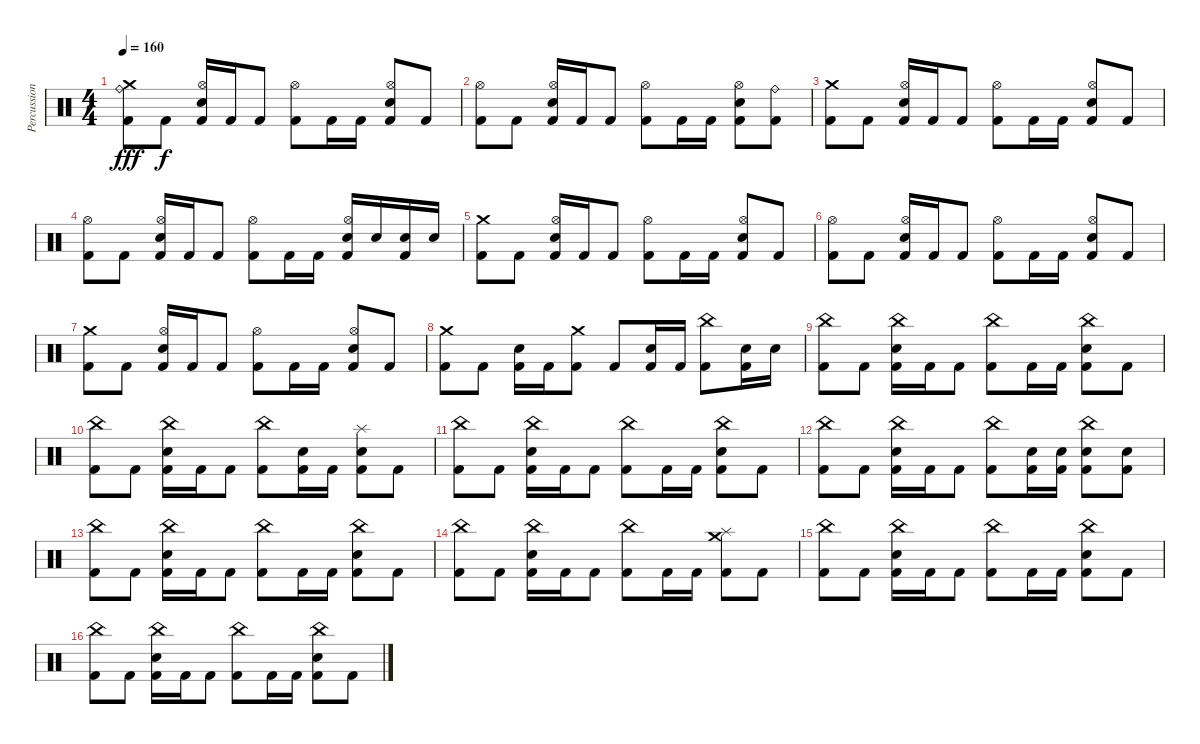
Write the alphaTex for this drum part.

\track ("Percussion" "Percussion") {instrument percussion}
\staff {score}
\articulation defaults
\ts (4 4)
\tempo 160
\clef neutral
\ks c
("Crash medium (hit)" "Ride (bell)" "Kick (hit) 2").8{dy fff} "Kick (hit) 2".8{dy f} ("Hi-Hat (open)" "Electric Snare (hit)" "Kick (hit) 2").16 "Kick (hit) 2".16 "Kick (hit) 2".8 ("Hi-Hat (open)" "Kick (hit) 2").8 "Kick (hit) 2".16 "Kick (hit) 2".16 ("Hi-Hat (open)" "Electric Snare (hit)" "Kick (hit) 2").8 "Kick (hit) 2".8 |
("Hi-Hat (open)" "Kick (hit) 2").8 "Kick (hit) 2".8 ("Hi-Hat (open)" "Electric Snare (hit)" "Kick (hit) 2").16 "Kick (hit) 2".16 "Kick (hit) 2".8 ("Hi-Hat (open)" "Kick (hit) 2").8 "Kick (hit) 2".16 "Kick (hit) 2".16 ("Hi-Hat (open)" "Electric Snare (hit)" "Kick (hit) 2").8 ("Ride (bell)" "Kick (hit) 2").8 |
("Crash medium (hit)" "Kick (hit) 2").8 "Kick (hit) 2".8 ("Hi-Hat (open)" "Electric Snare (hit)" "Kick (hit) 2").16 "Kick (hit) 2".16 "Kick (hit) 2".8 ("Hi-Hat (open)" "Kick (hit) 2").8 "Kick (hit) 2".16 "Kick (hit) 2".16 ("Hi-Hat (open)" "Electric Snare (hit)" "Kick (hit) 2").8 "Kick (hit) 2".8 |
("Hi-Hat (open)" "Kick (hit) 2").8 "Kick (hit) 2".8 ("Hi-Hat (open)" "Electric Snare (hit)" "Kick (hit) 2").16 "Kick (hit) 2".16 "Kick (hit) 2".8 ("Hi-Hat (open)" "Kick (hit) 2").8 "Kick (hit) 2".16 "Kick (hit) 2".16 ("Hi-Hat (open)" "Electric Snare (hit)" "Kick (hit) 2").16 "Electric Snare (hit)".16 ("Electric Snare (hit)" "Kick (hit) 2").16 "Electric Snare (hit)".16 |
("Crash medium (hit)" "Kick (hit) 2").8 "Kick (hit) 2".8 ("Hi-Hat (open)" "Electric Snare (hit)" "Kick (hit) 2").16 "Kick (hit) 2".16 "Kick (hit) 2".8 ("Hi-Hat (open)" "Kick (hit) 2").8 "Kick (hit) 2".16 "Kick (hit) 2".16 ("Hi-Hat (open)" "Electric Snare (hit)" "Kick (hit) 2").8 "Kick (hit) 2".8 |
("Hi-Hat (open)" "Kick (hit) 2").8 "Kick (hit) 2".8 ("Hi-Hat (open)" "Electric Snare (hit)" "Kick (hit) 2").16 "Kick (hit) 2".16 "Kick (hit) 2".8 ("Hi-Hat (open)" "Kick (hit) 2").8 "Kick (hit) 2".16 "Kick (hit) 2".16 ("Hi-Hat (open)" "Electric Snare (hit)" "Kick (hit) 2").8 "Kick (hit) 2".8 |
("Crash medium (hit)" "Kick (hit) 2").8 "Kick (hit) 2".8 ("Hi-Hat (open)" "Electric Snare (hit)" "Kick (hit) 2").16 "Kick (hit) 2".16 "Kick (hit) 2".8 ("Hi-Hat (open)" "Kick (hit) 2").8 "Kick (hit) 2".16 "Kick (hit) 2".16 ("Hi-Hat (open)" "Electric Snare (hit)" "Kick (hit) 2").8 "Kick (hit) 2".8 |
("Crash medium (hit)" "Kick (hit) 2").8 "Kick (hit) 2".8 ("Electric Snare (hit)" "Kick (hit) 2").16 "Kick (hit) 2".16 ("Crash medium (hit)" "Kick (hit) 2").8 "Kick (hit) 2".8 ("Electric Snare (hit)" "Kick (hit) 2").16 "Kick (hit) 2".16 ("China (hit)" "Kick (hit) 2").8 ("Electric Snare (hit)" "Kick (hit) 2").16 "Electric Snare (hit)".16 |
("China (hit)" "Kick (hit) 2").8 "Kick (hit) 2".8 ("China (hit)" "Electric Snare (hit)" "Kick (hit) 2").16 "Kick (hit) 2".16 "Kick (hit) 2".8 ("China (hit)" "Kick (hit) 2").8 "Kick (hit) 2".16 "Kick (hit) 2".16 ("China (hit)" "Electric Snare (hit)" "Kick (hit) 2").8 "Kick (hit) 2".8 |
("China (hit)" "Kick (hit) 2").8 "Kick (hit) 2".8 ("China (hit)" "Electric Snare (hit)" "Kick (hit) 2").16 "Kick (hit) 2".16 "Kick (hit) 2".8 ("China (hit)" "Kick (hit) 2").8 ("Electric Snare (hit)" "Kick (hit) 2").16 "Kick (hit) 2".16 ("Splash (hit)" "Electric Snare (hit)" "Kick (hit) 2").8 "Kick (hit) 2".8 |
("China (hit)" "Kick (hit) 2").8 "Kick (hit) 2".8 ("China (hit)" "Electric Snare (hit)" "Kick (hit) 2").16 "Kick (hit) 2".16 "Kick (hit) 2".8 ("China (hit)" "Kick (hit) 2").8 "Kick (hit) 2".16 "Kick (hit) 2".16 ("China (hit)" "Electric Snare (hit)" "Kick (hit) 2").8 "Kick (hit) 2".8 |
("China (hit)" "Kick (hit) 2").8 "Kick (hit) 2".8 ("China (hit)" "Electric Snare (hit)" "Kick (hit) 2").16 "Kick (hit) 2".16 "Kick (hit) 2".8 ("China (hit)" "Kick (hit) 2").8 ("Electric Snare (hit)" "Kick (hit) 2").16 ("Electric Snare (hit)" "Kick (hit) 2").16 ("China (hit)" "Electric Snare (hit)" "Kick (hit) 2").8 ("Electric Snare (hit)" "Kick (hit) 2").8 |
("China (hit)" "Kick (hit) 2").8 "Kick (hit) 2".8 ("China (hit)" "Electric Snare (hit)" "Kick (hit) 2").16 "Kick (hit) 2".16 "Kick (hit) 2".8 ("China (hit)" "Kick (hit) 2").8 "Kick (hit) 2".16 "Kick (hit) 2".16 ("China (hit)" "Electric Snare (hit)" "Kick (hit) 2").8 "Kick (hit) 2".8 |
("China (hit)" "Kick (hit) 2").8 "Kick (hit) 2".8 ("China (hit)" "Electric Snare (hit)" "Kick (hit) 2").16 "Kick (hit) 2".16 "Kick (hit) 2".8 ("China (hit)" "Kick (hit) 2").8 "Kick (hit) 2".16 "Kick (hit) 2".16 ("Crash medium (hit)" "Splash (hit)" "Kick (hit) 2").8 "Kick (hit) 2".8 |
("China (hit)" "Kick (hit) 2").8 "Kick (hit) 2".8 ("China (hit)" "Electric Snare (hit)" "Kick (hit) 2").16 "Kick (hit) 2".16 "Kick (hit) 2".8 ("China (hit)" "Kick (hit) 2").8 "Kick (hit) 2".16 "Kick (hit) 2".16 ("China (hit)" "Electric Snare (hit)" "Kick (hit) 2").8 "Kick (hit) 2".8 |
("China (hit)" "Kick (hit) 2").8 "Kick (hit) 2".8 ("China (hit)" "Electric Snare (hit)" "Kick (hit) 2").16 "Kick (hit) 2".16 "Kick (hit) 2".8 ("China (hit)" "Kick (hit) 2").8 "Kick (hit) 2".16 "Kick (hit) 2".16 ("China (hit)" "Electric Snare (hit)" "Kick (hit) 2").8 "Kick (hit) 2".8
